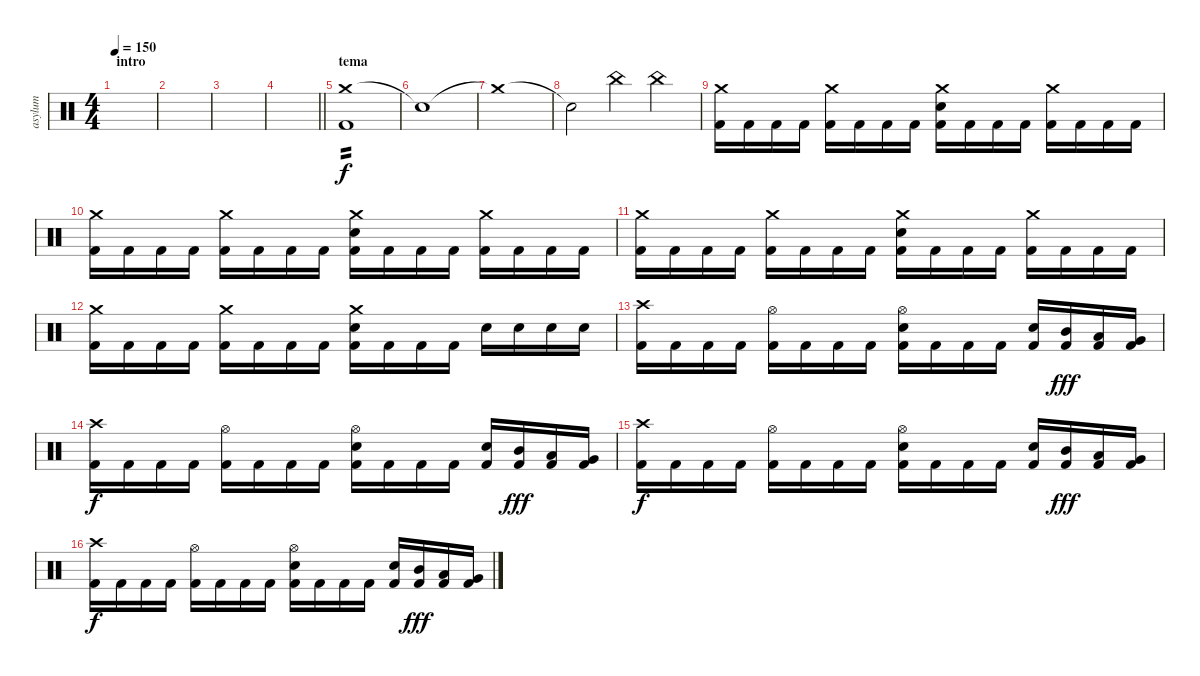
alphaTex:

\track ("asylum" "asylum") {instrument percussion}
\staff {score}
\articulation defaults
\ts (4 4)
\section ("" "intro")
\tempo 150
\clef neutral
\ks c
|
|
|
\barLineRight lightlight
|
\section ("" "tema")
("Crash medium (hit)" "Kick (hit) 2").1{tp 2} |
"Snare (hit)"{t}.1 |
"Crash medium (hit)"{t}.1 |
"Snare (hit)"{t}.2 "China (hit)".4 "China (hit)".4 |
("Crash medium (hit)" "Kick (hit) 2").16 "Kick (hit) 2".16 "Kick (hit) 2".16 "Kick (hit) 2".16 ("Crash medium (hit)" "Kick (hit) 2").16 "Kick (hit) 2".16 "Kick (hit) 2".16 "Kick (hit) 2".16 ("Crash medium (hit)" "Electric Snare (hit)" "Kick (hit) 2").16 "Kick (hit) 2".16 "Kick (hit) 2".16 "Kick (hit) 2".16 ("Crash medium (hit)" "Kick (hit) 2").16 "Kick (hit) 2".16 "Kick (hit) 2".16 "Kick (hit) 2".16 |
("Crash medium (hit)" "Kick (hit) 2").16 "Kick (hit) 2".16 "Kick (hit) 2".16 "Kick (hit) 2".16 ("Crash medium (hit)" "Kick (hit) 2").16 "Kick (hit) 2".16 "Kick (hit) 2".16 "Kick (hit) 2".16 ("Crash medium (hit)" "Electric Snare (hit)" "Kick (hit) 2").16 "Kick (hit) 2".16 "Kick (hit) 2".16 "Kick (hit) 2".16 ("Crash medium (hit)" "Kick (hit) 2").16 "Kick (hit) 2".16 "Kick (hit) 2".16 "Kick (hit) 2".16 |
("Crash medium (hit)" "Kick (hit) 2").16 "Kick (hit) 2".16 "Kick (hit) 2".16 "Kick (hit) 2".16 ("Crash medium (hit)" "Kick (hit) 2").16 "Kick (hit) 2".16 "Kick (hit) 2".16 "Kick (hit) 2".16 ("Crash medium (hit)" "Electric Snare (hit)" "Kick (hit) 2").16 "Kick (hit) 2".16 "Kick (hit) 2".16 "Kick (hit) 2".16 ("Crash medium (hit)" "Kick (hit) 2").16 "Kick (hit) 2".16 "Kick (hit) 2".16 "Kick (hit) 2".16 |
("Crash medium (hit)" "Kick (hit) 2").16 "Kick (hit) 2".16 "Kick (hit) 2".16 "Kick (hit) 2".16 ("Crash medium (hit)" "Kick (hit) 2").16 "Kick (hit) 2".16 "Kick (hit) 2".16 "Kick (hit) 2".16 ("Crash medium (hit)" "Electric Snare (hit)" "Kick (hit) 2").16 "Kick (hit) 2".16 "Kick (hit) 2".16 "Kick (hit) 2".16 "Electric Snare (hit)".16 "Electric Snare (hit)".16 "Electric Snare (hit)".16 "Electric Snare (hit)".16 |
("Crash high (hit)" "Kick (hit) 2").16 "Kick (hit) 2".16 "Kick (hit) 2".16 "Kick (hit) 2".16 ("Hi-Hat (open)" "Kick (hit) 2").16 "Kick (hit) 2".16 "Kick (hit) 2".16 "Kick (hit) 2".16 ("Hi-Hat (open)" "Electric Snare (hit)" "Kick (hit) 2").16 "Kick (hit) 2".16 "Kick (hit) 2".16 "Kick (hit) 2".16 ("Electric Snare (hit)" "Kick (hit) 2").16 ("Mid Tom (hit)" "Kick (hit) 2").16{dy fff} ("Low Tom (hit)" "Kick (hit) 2").16 ("Very Low Tom (hit)" "Kick (hit) 2").16 |
("Crash high (hit)" "Kick (hit) 2").16{dy f} "Kick (hit) 2".16 "Kick (hit) 2".16 "Kick (hit) 2".16 ("Hi-Hat (open)" "Kick (hit) 2").16 "Kick (hit) 2".16 "Kick (hit) 2".16 "Kick (hit) 2".16 ("Hi-Hat (open)" "Electric Snare (hit)" "Kick (hit) 2").16 "Kick (hit) 2".16 "Kick (hit) 2".16 "Kick (hit) 2".16 ("Electric Snare (hit)" "Kick (hit) 2").16 ("Mid Tom (hit)" "Kick (hit) 2").16{dy fff} ("Low Tom (hit)" "Kick (hit) 2").16 ("Very Low Tom (hit)" "Kick (hit) 2").16 |
("Crash high (hit)" "Kick (hit) 2").16{dy f} "Kick (hit) 2".16 "Kick (hit) 2".16 "Kick (hit) 2".16 ("Hi-Hat (open)" "Kick (hit) 2").16 "Kick (hit) 2".16 "Kick (hit) 2".16 "Kick (hit) 2".16 ("Hi-Hat (open)" "Electric Snare (hit)" "Kick (hit) 2").16 "Kick (hit) 2".16 "Kick (hit) 2".16 "Kick (hit) 2".16 ("Electric Snare (hit)" "Kick (hit) 2").16 ("Mid Tom (hit)" "Kick (hit) 2").16{dy fff} ("Low Tom (hit)" "Kick (hit) 2").16 ("Very Low Tom (hit)" "Kick (hit) 2").16 |
("Crash high (hit)" "Kick (hit) 2").16{dy f} "Kick (hit) 2".16 "Kick (hit) 2".16 "Kick (hit) 2".16 ("Hi-Hat (open)" "Kick (hit) 2").16 "Kick (hit) 2".16 "Kick (hit) 2".16 "Kick (hit) 2".16 ("Hi-Hat (open)" "Electric Snare (hit)" "Kick (hit) 2").16 "Kick (hit) 2".16 "Kick (hit) 2".16 "Kick (hit) 2".16 ("Electric Snare (hit)" "Kick (hit) 2").16 ("Mid Tom (hit)" "Kick (hit) 2").16{dy fff} ("Low Tom (hit)" "Kick (hit) 2").16 ("Very Low Tom (hit)" "Kick (hit) 2").16
